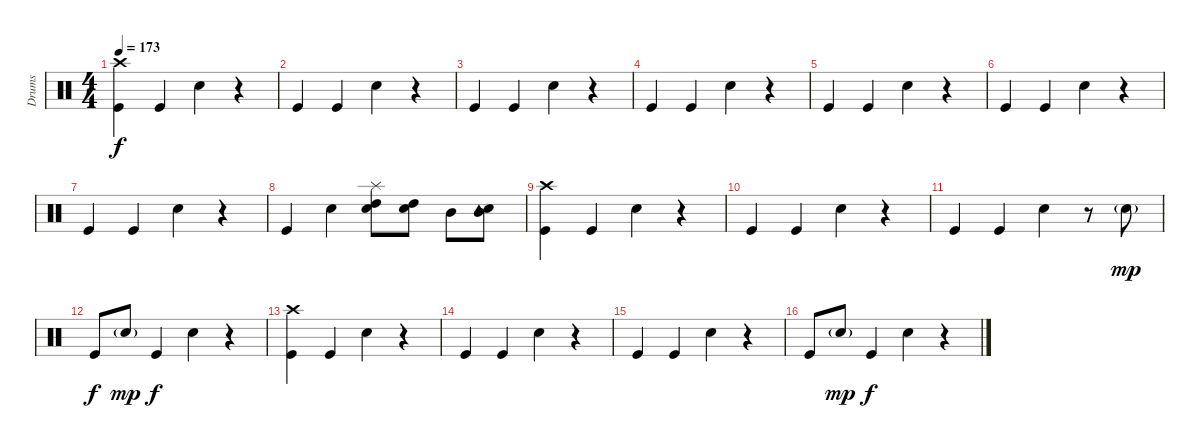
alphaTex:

\track ("Drums" "Drums") {instrument percussion}
\staff {score}
\articulation defaults
\ts (4 4)
\tempo 173
\clef neutral
\ks c
("Kick (hit)" "Crash high (hit)").4{dy f} "Kick (hit)".4 "Snare (hit) 2".4 r.4 |
"Kick (hit)".4 "Kick (hit)".4 "Snare (hit) 2".4 r.4 |
"Kick (hit)".4 "Kick (hit)".4 "Snare (hit) 2".4 r.4 |
"Kick (hit)".4 "Kick (hit)".4 "Snare (hit) 2".4 r.4 |
"Kick (hit)".4 "Kick (hit)".4 "Snare (hit) 2".4 r.4 |
"Kick (hit)".4 "Kick (hit)".4 "Snare (hit) 2".4 r.4 |
"Kick (hit)".4 "Kick (hit)".4 "Snare (hit) 2".4 r.4 |
"Kick (hit)".4 "Snare (hit) 2".4 ("Snare (hit) 2" "Splash (hit)" "High Tom (hit)").8 ("Snare (hit) 2" "High Tom (hit)").8 "Mid Tom (hit)".8 ("Snare (hit) 2" "Tambourine (hit)" "Mid Tom (hit)").8 |
("Crash high (hit)" "Kick (hit)").4 "Kick (hit)".4 "Snare (hit) 2".4 r.4 |
"Kick (hit)".4 "Kick (hit)".4 "Snare (hit) 2".4 r.4 |
"Kick (hit)".4 "Kick (hit)".4 "Snare (hit) 2".4 r.8 "Snare (hit) 2"{g}.8{dy mp} |
"Kick (hit)".8{dy f} "Snare (hit) 2"{g}.8{dy mp} "Kick (hit)".4{dy f} "Snare (hit) 2".4 r.4 |
("Crash high (hit)" "Kick (hit)").4 "Kick (hit)".4 "Snare (hit) 2".4 r.4 |
"Kick (hit)".4 "Kick (hit)".4 "Snare (hit) 2".4 r.4 |
"Kick (hit)".4 "Kick (hit)".4 "Snare (hit) 2".4 r.4 |
"Kick (hit)".8 "Snare (hit) 2"{g}.8{dy mp} "Kick (hit)".4{dy f} "Snare (hit) 2".4 r.4
